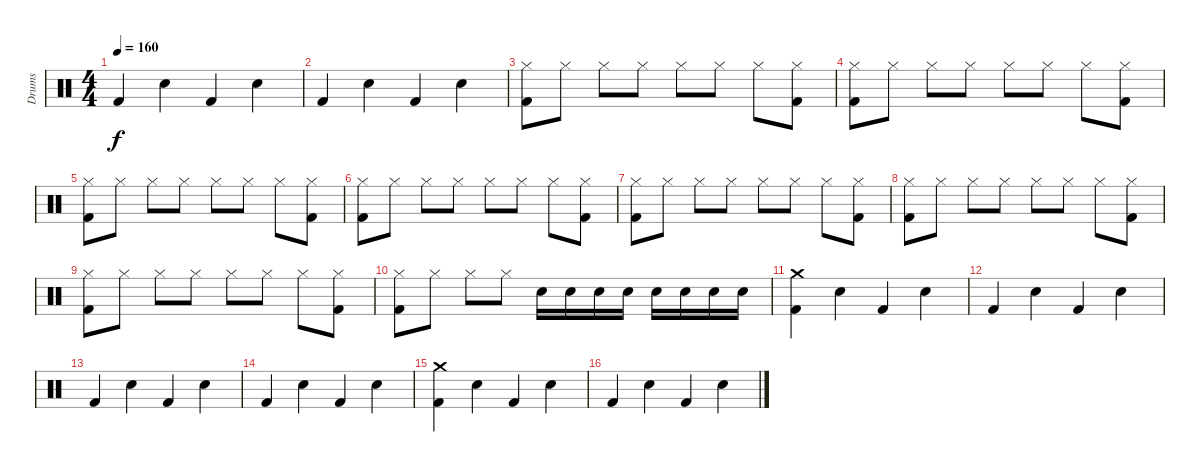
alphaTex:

\track ("Drums" "Drums") {instrument percussion}
\staff {score}
\articulation defaults
\ts (4 4)
\tempo 160
\clef neutral
\ks c "Kick (hit) 2".4{dy f} "Snare (hit) 2".4 "Kick (hit) 2".4 "Snare (hit) 2".4
|
"Kick (hit) 2".4 "Snare (hit) 2".4 "Kick (hit) 2".4 "Snare (hit) 2".4 |
("Kick (hit) 2" "Hi-Hat (closed)").8 "Hi-Hat (closed)".8 "Hi-Hat (closed)".8 "Hi-Hat (closed)".8 "Hi-Hat (closed)".8 "Hi-Hat (closed)".8 "Hi-Hat (closed)".8 ("Kick (hit) 2" "Hi-Hat (closed)").8 |
("Kick (hit) 2" "Hi-Hat (closed)").8 "Hi-Hat (closed)".8 "Hi-Hat (closed)".8 "Hi-Hat (closed)".8 "Hi-Hat (closed)".8 "Hi-Hat (closed)".8 "Hi-Hat (closed)".8 ("Kick (hit) 2" "Hi-Hat (closed)").8 |
("Kick (hit) 2" "Hi-Hat (closed)").8 "Hi-Hat (closed)".8 "Hi-Hat (closed)".8 "Hi-Hat (closed)".8 "Hi-Hat (closed)".8 "Hi-Hat (closed)".8 "Hi-Hat (closed)".8 ("Kick (hit) 2" "Hi-Hat (closed)").8 |
("Kick (hit) 2" "Hi-Hat (closed)").8 "Hi-Hat (closed)".8 "Hi-Hat (closed)".8 "Hi-Hat (closed)".8 "Hi-Hat (closed)".8 "Hi-Hat (closed)".8 "Hi-Hat (closed)".8 ("Kick (hit) 2" "Hi-Hat (closed)").8 |
("Kick (hit) 2" "Hi-Hat (closed)").8 "Hi-Hat (closed)".8 "Hi-Hat (closed)".8 "Hi-Hat (closed)".8 "Hi-Hat (closed)".8 "Hi-Hat (closed)".8 "Hi-Hat (closed)".8 ("Kick (hit) 2" "Hi-Hat (closed)").8 |
("Kick (hit) 2" "Hi-Hat (closed)").8 "Hi-Hat (closed)".8 "Hi-Hat (closed)".8 "Hi-Hat (closed)".8 "Hi-Hat (closed)".8 "Hi-Hat (closed)".8 "Hi-Hat (closed)".8 ("Kick (hit) 2" "Hi-Hat (closed)").8 |
("Kick (hit) 2" "Hi-Hat (closed)").8 "Hi-Hat (closed)".8 "Hi-Hat (closed)".8 "Hi-Hat (closed)".8 "Hi-Hat (closed)".8 "Hi-Hat (closed)".8 "Hi-Hat (closed)".8 ("Kick (hit) 2" "Hi-Hat (closed)").8 |
("Kick (hit) 2" "Hi-Hat (closed)").8 "Hi-Hat (closed)".8 "Hi-Hat (closed)".8 "Hi-Hat (closed)".8 "Snare (hit) 2".16 "Snare (hit) 2".16 "Snare (hit) 2".16 "Snare (hit) 2".16 "Snare (hit) 2".16 "Snare (hit) 2".16 "Snare (hit) 2".16 "Snare (hit) 2".16 |
("Kick (hit) 2" "Crash medium (hit)").4 "Snare (hit) 2".4 "Kick (hit) 2".4 "Snare (hit) 2".4 |
"Kick (hit) 2".4 "Snare (hit) 2".4 "Kick (hit) 2".4 "Snare (hit) 2".4 |
"Kick (hit) 2".4 "Snare (hit) 2".4 "Kick (hit) 2".4 "Snare (hit) 2".4 |
"Kick (hit) 2".4 "Snare (hit) 2".4 "Kick (hit) 2".4 "Snare (hit) 2".4 |
("Kick (hit) 2" "Crash medium (hit)").4 "Snare (hit) 2".4 "Kick (hit) 2".4 "Snare (hit) 2".4 |
"Kick (hit) 2".4 "Snare (hit) 2".4 "Kick (hit) 2".4 "Snare (hit) 2".4
